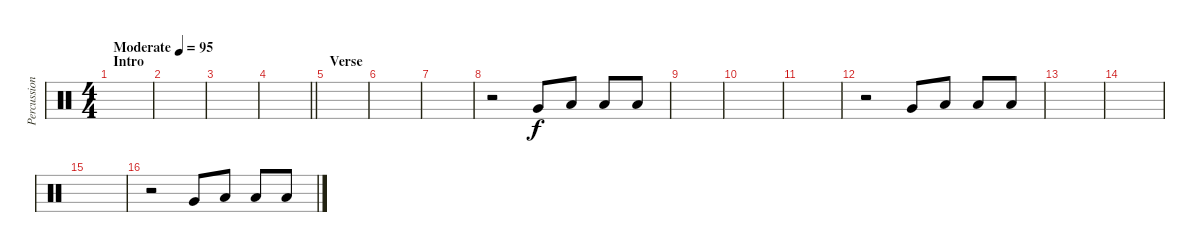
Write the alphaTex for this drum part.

\track ("Percussioni" "Percussion") {instrument percussion}
\staff {score}
\articulation defaults
\ts (4 4)
\section ("" "Intro")
\tempo (95 "Moderate")
\clef neutral
\ks c
|
|
|
\barLineRight lightlight
|
\section ("" "Verse")
|
|
|
r.2 "Very Low Tom (hit)".8 "Low Tom (hit)".8 "Low Tom (hit)".8 "Low Floor Tom (hit)".8 |
|
|
|
r.2 "Very Low Tom (hit)".8 "Low Tom (hit)".8 "Low Tom (hit)".8 "Low Floor Tom (hit)".8 |
|
|
|
r.2 "Very Low Tom (hit)".8 "Low Tom (hit)".8 "Low Tom (hit)".8 "Low Floor Tom (hit)".8
